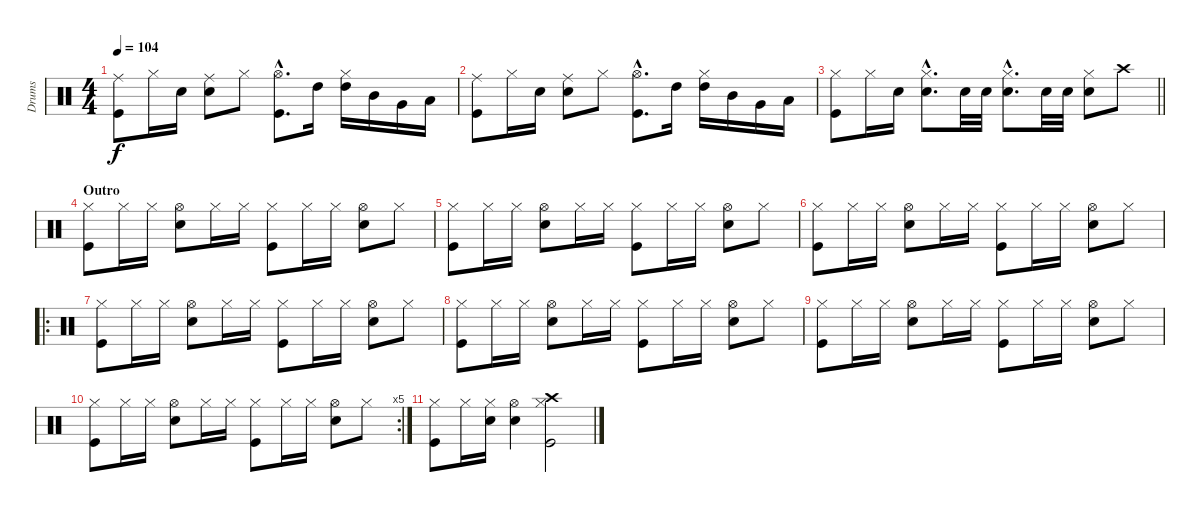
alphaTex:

\track ("Drums" "Drums") {instrument percussion}
\staff {score}
\articulation defaults
\ts (4 4)
\tempo 104
\clef neutral
\ks c
("Ride (middle)" "Kick (hit)").8{dy f} "Hi-Hat (closed)".16 "Snare (hit) 2".16 ("Ride (middle)" "Snare (hit) 2").8 "Hi-Hat (closed)".8 ("Hi-Hat (open)"{hac} "Kick (hit)"{hac}).8{d} "High Tom (hit)".16 ("Hi-Hat (closed)" "High Tom (hit)").16 "Mid Tom (hit)".16 "Very Low Tom (hit)".16 "Low Floor Tom (hit)".16 |
("Ride (middle)" "Kick (hit)").8 "Hi-Hat (closed)".16 "Snare (hit) 2".16 ("Ride (middle)" "Snare (hit) 2").8 "Hi-Hat (closed)".8 ("Hi-Hat (open)"{hac} "Kick (hit)"{hac}).8{d} "High Tom (hit)".16 ("Hi-Hat (closed)" "High Tom (hit)").16 "Mid Tom (hit)".16 "Very Low Tom (hit)".16 "Low Floor Tom (hit)".16 |
\barLineRight lightlight
("Hi-Hat (closed)" "Kick (hit)").8 "Hi-Hat (closed)".16 "Snare (hit) 2".16 ("Hi-Hat (closed)"{hac} "Snare (hit) 2"{hac}).8{d} "Snare (hit) 2".32 "Snare (hit) 2".32 ("Hi-Hat (closed)"{hac} "Snare (hit) 2"{hac}).8{d} "Snare (hit) 2".32 "Snare (hit) 2".32 ("Hi-Hat (closed)" "Snare (hit) 2").8 "Crash high (hit)".8 |
\section ("" "Outro")
("Hi-Hat (closed)" "Kick (hit)").8 "Hi-Hat (closed)".16 "Hi-Hat (closed)".16 ("Hi-Hat (open)" "Snare (hit) 2").8 "Hi-Hat (closed)".16 "Hi-Hat (closed)".16 ("Hi-Hat (closed)" "Kick (hit)").8 "Hi-Hat (closed)".16 "Hi-Hat (closed)".16 ("Hi-Hat (open)" "Snare (hit) 2").8 "Hi-Hat (closed)".8 |
("Hi-Hat (closed)" "Kick (hit)").8 "Hi-Hat (closed)".16 "Hi-Hat (closed)".16 ("Hi-Hat (open)" "Snare (hit) 2").8 "Hi-Hat (closed)".16 "Hi-Hat (closed)".16 ("Hi-Hat (closed)" "Kick (hit)").8 "Hi-Hat (closed)".16 "Hi-Hat (closed)".16 ("Hi-Hat (open)" "Snare (hit) 2").8 "Hi-Hat (closed)".8 |
("Hi-Hat (closed)" "Kick (hit)").8 "Hi-Hat (closed)".16 "Hi-Hat (closed)".16 ("Hi-Hat (open)" "Snare (hit) 2").8 "Hi-Hat (closed)".16 "Hi-Hat (closed)".16 ("Hi-Hat (closed)" "Kick (hit)").8 "Hi-Hat (closed)".16 "Hi-Hat (closed)".16 ("Hi-Hat (open)" "Snare (hit) 2").8 "Hi-Hat (closed)".8 |
\ro
("Hi-Hat (closed)" "Kick (hit)").8 "Hi-Hat (closed)".16 "Hi-Hat (closed)".16 ("Hi-Hat (open)" "Snare (hit) 2").8 "Hi-Hat (closed)".16 "Hi-Hat (closed)".16 ("Hi-Hat (closed)" "Kick (hit)").8 "Hi-Hat (closed)".16 "Hi-Hat (closed)".16 ("Hi-Hat (open)" "Snare (hit) 2").8 "Hi-Hat (closed)".8 |
("Hi-Hat (closed)" "Kick (hit)").8 "Hi-Hat (closed)".16 "Hi-Hat (closed)".16 ("Hi-Hat (open)" "Snare (hit) 2").8 "Hi-Hat (closed)".16 "Hi-Hat (closed)".16 ("Hi-Hat (closed)" "Kick (hit)").8 "Hi-Hat (closed)".16 "Hi-Hat (closed)".16 ("Hi-Hat (open)" "Snare (hit) 2").8 "Hi-Hat (closed)".8 |
("Hi-Hat (closed)" "Kick (hit)").8 "Hi-Hat (closed)".16 "Hi-Hat (closed)".16 ("Hi-Hat (open)" "Snare (hit) 2").8 "Hi-Hat (closed)".16 "Hi-Hat (closed)".16 ("Hi-Hat (closed)" "Kick (hit)").8 "Hi-Hat (closed)".16 "Hi-Hat (closed)".16 ("Hi-Hat (open)" "Snare (hit) 2").8 "Hi-Hat (closed)".8 |
\rc 5
("Hi-Hat (closed)" "Kick (hit)").8 "Hi-Hat (closed)".16 "Hi-Hat (closed)".16 ("Hi-Hat (open)" "Snare (hit) 2").8 "Hi-Hat (closed)".16 "Hi-Hat (closed)".16 ("Hi-Hat (closed)" "Kick (hit)").8 "Hi-Hat (closed)".16 "Hi-Hat (closed)".16 ("Hi-Hat (open)" "Snare (hit) 2").8 "Hi-Hat (closed)".8 |
("Hi-Hat (closed)" "Kick (hit)").8 "Hi-Hat (closed)".16 ("Hi-Hat (closed)" "Snare (hit) 2").16 ("Hi-Hat (open)" "Snare (hit) 2").4 ("Crash high (hit)" "Hi-Hat (closed)" "Kick (hit)").2
